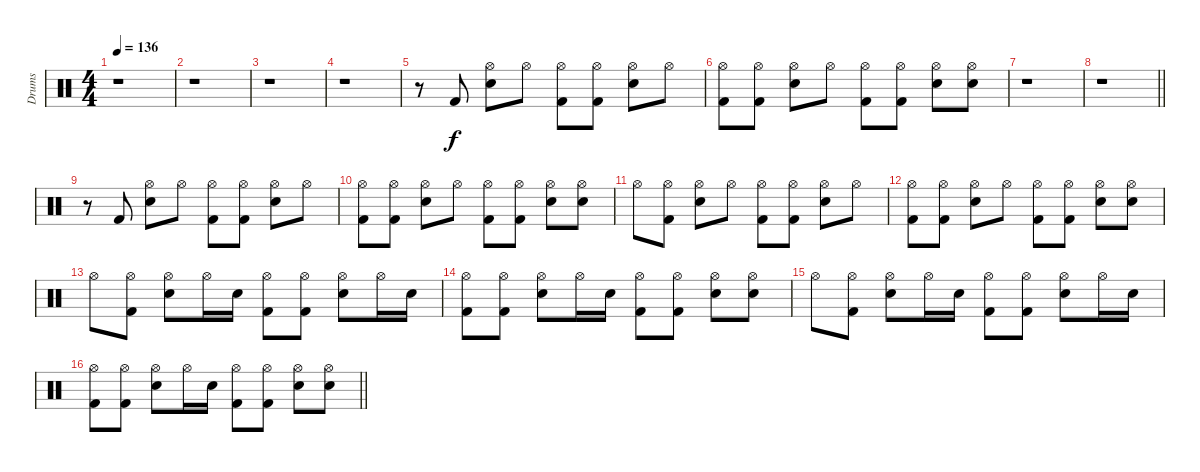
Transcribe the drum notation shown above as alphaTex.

\track ("Drums" "Drums") {instrument percussion}
\staff {score}
\articulation defaults
\ts (4 4)
\tempo 136
\clef neutral
\ks c
r.1{dy f} |
r.1 |
r.1 |
r.1 |
r.8 "Kick (hit) 2".8 ("Hi-Hat (open)" "Snare (hit) 2").8 "Hi-Hat (open)".8 ("Hi-Hat (open)" "Kick (hit) 2").8 ("Hi-Hat (open)" "Kick (hit) 2").8 ("Hi-Hat (open)" "Snare (hit) 2").8 "Hi-Hat (open)".8 |
("Hi-Hat (open)" "Kick (hit) 2").8 ("Hi-Hat (open)" "Kick (hit) 2").8 ("Hi-Hat (open)" "Snare (hit) 2").8 "Hi-Hat (open)".8 ("Hi-Hat (open)" "Kick (hit) 2").8 ("Hi-Hat (open)" "Kick (hit) 2").8 ("Hi-Hat (open)" "Snare (hit) 2").8 ("Hi-Hat (open)" "Snare (hit) 2").8 |
r.1 |
\barLineRight lightlight
r.1 |
\section ("" "")
r.8 "Kick (hit) 2".8 ("Hi-Hat (open)" "Snare (hit) 2").8 "Hi-Hat (open)".8 ("Hi-Hat (open)" "Kick (hit) 2").8 ("Hi-Hat (open)" "Kick (hit) 2").8 ("Hi-Hat (open)" "Snare (hit) 2").8 "Hi-Hat (open)".8 |
("Hi-Hat (open)" "Kick (hit) 2").8 ("Hi-Hat (open)" "Kick (hit) 2").8 ("Hi-Hat (open)" "Snare (hit) 2").8 "Hi-Hat (open)".8 ("Hi-Hat (open)" "Kick (hit) 2").8 ("Hi-Hat (open)" "Kick (hit) 2").8 ("Hi-Hat (open)" "Snare (hit) 2").8 ("Hi-Hat (open)" "Snare (hit) 2").8 |
"Hi-Hat (open)".8 ("Hi-Hat (open)" "Kick (hit) 2").8 ("Hi-Hat (open)" "Snare (hit) 2").8 "Hi-Hat (open)".8 ("Hi-Hat (open)" "Kick (hit) 2").8 ("Hi-Hat (open)" "Kick (hit) 2").8 ("Hi-Hat (open)" "Snare (hit) 2").8 "Hi-Hat (open)".8 |
("Hi-Hat (open)" "Kick (hit) 2").8 ("Hi-Hat (open)" "Kick (hit) 2").8 ("Hi-Hat (open)" "Snare (hit) 2").8 "Hi-Hat (open)".8 ("Hi-Hat (open)" "Kick (hit) 2").8 ("Hi-Hat (open)" "Kick (hit) 2").8 ("Hi-Hat (open)" "Snare (hit) 2").8 ("Hi-Hat (open)" "Snare (hit) 2").8 |
"Hi-Hat (open)".8 ("Hi-Hat (open)" "Kick (hit) 2").8 ("Hi-Hat (open)" "Snare (hit) 2").8 "Hi-Hat (open)".16 "Snare (hit) 2".16 ("Hi-Hat (open)" "Kick (hit) 2").8 ("Hi-Hat (open)" "Kick (hit) 2").8 ("Hi-Hat (open)" "Snare (hit) 2").8 "Hi-Hat (open)".16 "Snare (hit) 2".16 |
("Hi-Hat (open)" "Kick (hit) 2").8 ("Hi-Hat (open)" "Kick (hit) 2").8 ("Hi-Hat (open)" "Snare (hit) 2").8 "Hi-Hat (open)".16 "Snare (hit) 2".16 ("Hi-Hat (open)" "Kick (hit) 2").8 ("Hi-Hat (open)" "Kick (hit) 2").8 ("Hi-Hat (open)" "Snare (hit) 2").8 ("Hi-Hat (open)" "Snare (hit) 2").8 |
"Hi-Hat (open)".8 ("Hi-Hat (open)" "Kick (hit) 2").8 ("Hi-Hat (open)" "Snare (hit) 2").8 "Hi-Hat (open)".16 "Snare (hit) 2".16 ("Hi-Hat (open)" "Kick (hit) 2").8 ("Hi-Hat (open)" "Kick (hit) 2").8 ("Hi-Hat (open)" "Snare (hit) 2").8 "Hi-Hat (open)".16 "Snare (hit) 2".16 |
\barLineRight lightlight
("Hi-Hat (open)" "Kick (hit) 2").8 ("Hi-Hat (open)" "Kick (hit) 2").8 ("Hi-Hat (open)" "Snare (hit) 2").8 "Hi-Hat (open)".16 "Snare (hit) 2".16 ("Hi-Hat (open)" "Kick (hit) 2").8 ("Hi-Hat (open)" "Kick (hit) 2").8 ("Hi-Hat (open)" "Snare (hit) 2").8 ("Hi-Hat (open)" "Snare (hit) 2").8
